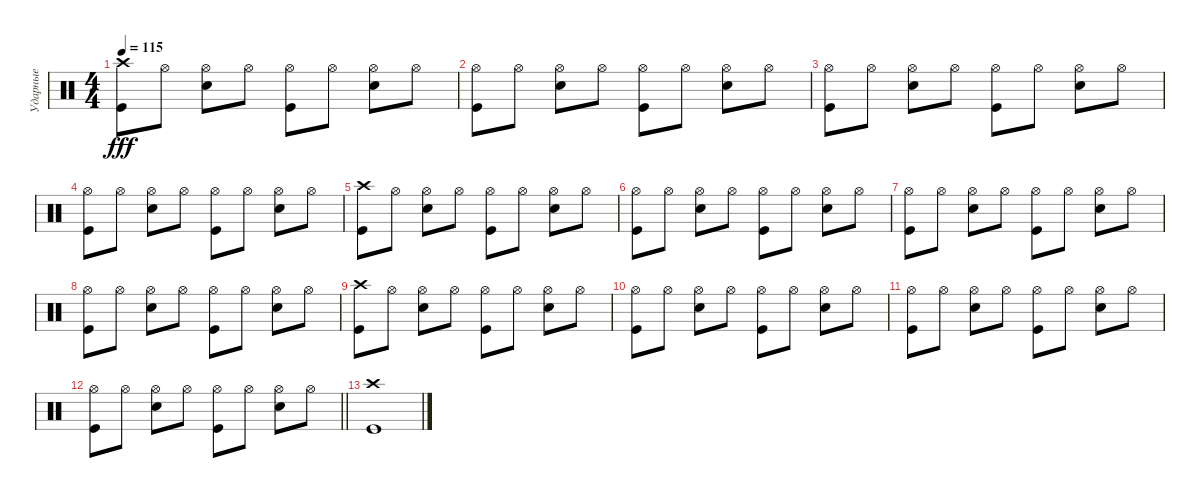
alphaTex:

\track ("Ударные" "Ударные") {instrument percussion}
\staff {score}
\articulation defaults
\ts (4 4)
\tempo 115
\clef neutral
\ks c
("Crash high (hit)" "Kick (hit)").8{dy fff} "Hi-Hat (open)".8 ("Hi-Hat (open)" "Electric Snare (hit)").8 "Hi-Hat (open)".8 ("Hi-Hat (open)" "Kick (hit)").8 "Hi-Hat (open)".8 ("Hi-Hat (open)" "Electric Snare (hit)").8 "Hi-Hat (open)".8 |
("Hi-Hat (open)" "Kick (hit)").8 "Hi-Hat (open)".8 ("Hi-Hat (open)" "Electric Snare (hit)").8 "Hi-Hat (open)".8 ("Hi-Hat (open)" "Kick (hit)").8 "Hi-Hat (open)".8 ("Hi-Hat (open)" "Electric Snare (hit)").8 "Hi-Hat (open)".8 |
("Hi-Hat (open)" "Kick (hit)").8 "Hi-Hat (open)".8 ("Hi-Hat (open)" "Electric Snare (hit)").8 "Hi-Hat (open)".8 ("Hi-Hat (open)" "Kick (hit)").8 "Hi-Hat (open)".8 ("Hi-Hat (open)" "Electric Snare (hit)").8 "Hi-Hat (open)".8 |
("Hi-Hat (open)" "Kick (hit)").8 "Hi-Hat (open)".8 ("Hi-Hat (open)" "Electric Snare (hit)").8 "Hi-Hat (open)".8 ("Hi-Hat (open)" "Kick (hit)").8 "Hi-Hat (open)".8 ("Hi-Hat (open)" "Electric Snare (hit)").8 "Hi-Hat (open)".8 |
("Crash high (hit)" "Kick (hit)").8 "Hi-Hat (open)".8 ("Hi-Hat (open)" "Electric Snare (hit)").8 "Hi-Hat (open)".8 ("Hi-Hat (open)" "Kick (hit)").8 "Hi-Hat (open)".8 ("Hi-Hat (open)" "Electric Snare (hit)").8 "Hi-Hat (open)".8 |
("Hi-Hat (open)" "Kick (hit)").8 "Hi-Hat (open)".8 ("Hi-Hat (open)" "Electric Snare (hit)").8 "Hi-Hat (open)".8 ("Hi-Hat (open)" "Kick (hit)").8 "Hi-Hat (open)".8 ("Hi-Hat (open)" "Electric Snare (hit)").8 "Hi-Hat (open)".8 |
("Hi-Hat (open)" "Kick (hit)").8 "Hi-Hat (open)".8 ("Hi-Hat (open)" "Electric Snare (hit)").8 "Hi-Hat (open)".8 ("Hi-Hat (open)" "Kick (hit)").8 "Hi-Hat (open)".8 ("Hi-Hat (open)" "Electric Snare (hit)").8 "Hi-Hat (open)".8 |
("Hi-Hat (open)" "Kick (hit)").8 "Hi-Hat (open)".8 ("Hi-Hat (open)" "Electric Snare (hit)").8 "Hi-Hat (open)".8 ("Hi-Hat (open)" "Kick (hit)").8 "Hi-Hat (open)".8 ("Hi-Hat (open)" "Electric Snare (hit)").8 "Hi-Hat (open)".8 |
("Crash high (hit)" "Kick (hit)").8 "Hi-Hat (open)".8 ("Hi-Hat (open)" "Electric Snare (hit)").8 "Hi-Hat (open)".8 ("Hi-Hat (open)" "Kick (hit)").8 "Hi-Hat (open)".8 ("Hi-Hat (open)" "Electric Snare (hit)").8 "Hi-Hat (open)".8 |
("Hi-Hat (open)" "Kick (hit)").8 "Hi-Hat (open)".8 ("Hi-Hat (open)" "Electric Snare (hit)").8 "Hi-Hat (open)".8 ("Hi-Hat (open)" "Kick (hit)").8 "Hi-Hat (open)".8 ("Hi-Hat (open)" "Electric Snare (hit)").8 "Hi-Hat (open)".8 |
("Hi-Hat (open)" "Kick (hit)").8 "Hi-Hat (open)".8 ("Hi-Hat (open)" "Electric Snare (hit)").8 "Hi-Hat (open)".8 ("Hi-Hat (open)" "Kick (hit)").8 "Hi-Hat (open)".8 ("Hi-Hat (open)" "Electric Snare (hit)").8 "Hi-Hat (open)".8 |
\barLineRight lightlight
("Hi-Hat (open)" "Kick (hit)").8 "Hi-Hat (open)".8 ("Hi-Hat (open)" "Electric Snare (hit)").8 "Hi-Hat (open)".8 ("Hi-Hat (open)" "Kick (hit)").8 "Hi-Hat (open)".8 ("Hi-Hat (open)" "Electric Snare (hit)").8 "Hi-Hat (open)".8 |
("Kick (hit)" "Crash high (hit)").1
